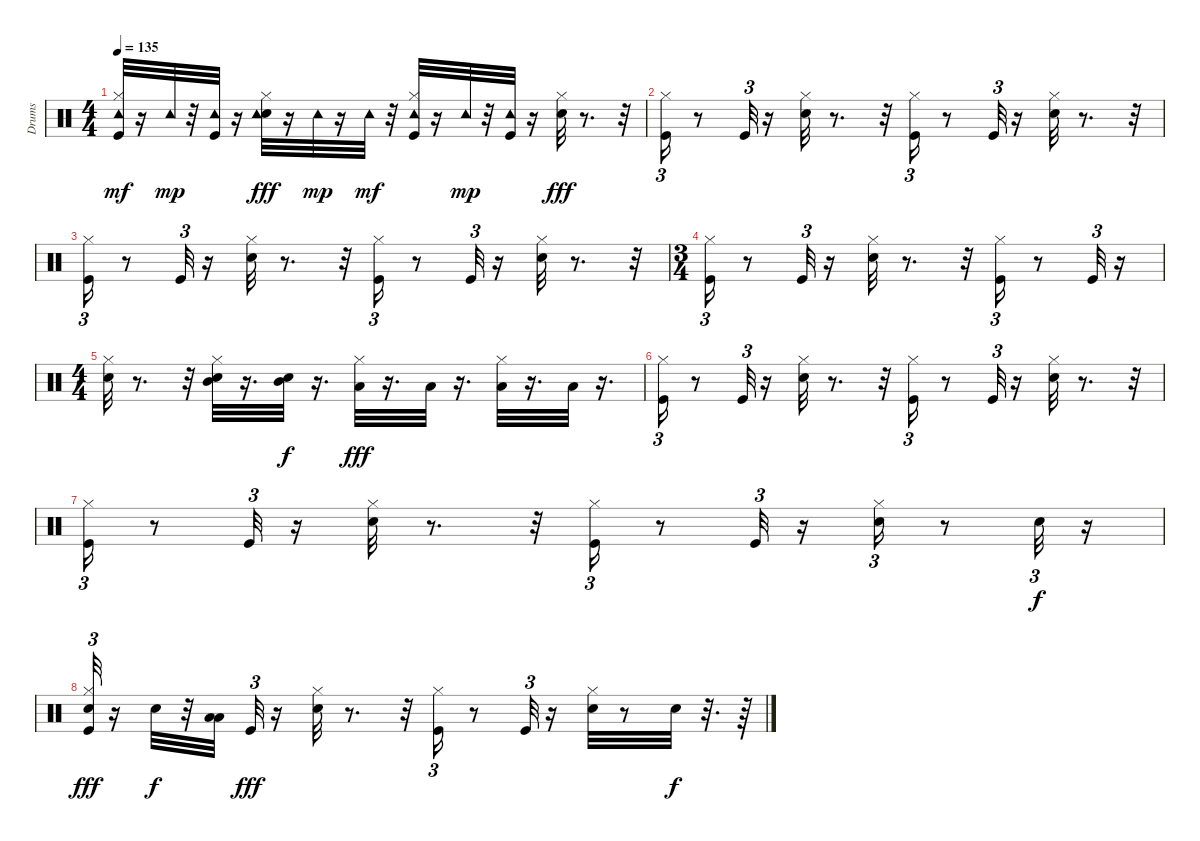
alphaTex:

\track ("Drums" "Drums") {instrument percussion}
\staff {score}
\articulation defaults
\ts (4 4)
\tempo 135
\clef neutral
\ks c
("Kick (hit)" "Hi-Hat (closed)" "Tambourine (hit)").32{dy mf} r.16 "Tambourine (hit)".32{dy mp} r.32 ("Kick (hit)" "Tambourine (hit)").32 r.16 ("Electric Snare (hit)" "Hi-Hat (closed)" "Tambourine (hit)").32{dy fff} r.16 "Tambourine (hit)".32{dy mp} r.16 "Tambourine (hit)".32{dy mf} r.32 ("Kick (hit)" "Hi-Hat (closed)" "Tambourine (hit)").32 r.16 "Tambourine (hit)".32{dy mp} r.32 ("Kick (hit)" "Tambourine (hit)").32 r.16 ("Electric Snare (hit)" "Hi-Hat (closed)").32{dy fff} r.8{d} r.32 |
("Kick (hit)" "Hi-Hat (closed)").16{tu (3 2)} r.8 "Kick (hit)".32{tu (3 2)} r.16 ("Electric Snare (hit)" "Hi-Hat (closed)").32 r.8{d} r.32 ("Kick (hit)" "Hi-Hat (closed)").16{tu (3 2)} r.8 "Kick (hit)".32{tu (3 2)} r.16 ("Electric Snare (hit)" "Hi-Hat (closed)").32 r.8{d} r.32 |
("Kick (hit)" "Hi-Hat (closed)").16{tu (3 2)} r.8 "Kick (hit)".32{tu (3 2)} r.16 ("Electric Snare (hit)" "Hi-Hat (closed)").32 r.8{d} r.32 ("Kick (hit)" "Hi-Hat (closed)").16{tu (3 2)} r.8 "Kick (hit)".32{tu (3 2)} r.16 ("Electric Snare (hit)" "Hi-Hat (closed)").32 r.8{d} r.32 |
\ts (3 4)
("Kick (hit)" "Hi-Hat (closed)").16{tu (3 2)} r.8 "Kick (hit)".32{tu (3 2)} r.16 ("Electric Snare (hit)" "Hi-Hat (closed)").32 r.8{d} r.32 ("Kick (hit)" "Hi-Hat (closed)").16{tu (3 2)} r.8 "Kick (hit)".32{tu (3 2)} r.16 |
\ts (4 4)
("Electric Snare (hit)" "Hi-Hat (closed)").32 r.8{d} r.32 ("Electric Snare (hit)" "Mid Tom (hit)" "Hi-Hat (closed)").32 r.16{d} ("Electric Snare (hit)" "Mid Tom (hit)").32{dy f} r.16{d} ("Low Tom (hit)" "Hi-Hat (closed)").32{dy fff} r.16{d} "Low Tom (hit)".32 r.16{d} ("Low Floor Tom (hit)" "Hi-Hat (closed)").32 r.16{d} "Low Floor Tom (hit)".32 r.16{d} |
("Kick (hit)" "Hi-Hat (closed)").16{tu (3 2)} r.8 "Kick (hit)".32{tu (3 2)} r.16 ("Electric Snare (hit)" "Hi-Hat (closed)").32 r.8{d} r.32 ("Kick (hit)" "Hi-Hat (closed)").16{tu (3 2)} r.8 "Kick (hit)".32{tu (3 2)} r.16 ("Electric Snare (hit)" "Hi-Hat (closed)").32 r.8{d} r.32 |
("Kick (hit)" "Hi-Hat (closed)").16{tu (3 2)} r.8 "Kick (hit)".32{tu (3 2)} r.16 ("Electric Snare (hit)" "Hi-Hat (closed)").32 r.8{d} r.32 ("Kick (hit)" "Hi-Hat (closed)").16{tu (3 2)} r.8 "Kick (hit)".32{tu (3 2)} r.16 ("Electric Snare (hit)" "Hi-Hat (closed)").16{tu (3 2)} r.8 "Electric Snare (hit)".32{tu (3 2) dy f} r.16 |
("Electric Snare (hit)" "Kick (hit)" "Hi-Hat (closed)").32{tu (3 2) dy fff} r.16 "Electric Snare (hit)".32{dy f} r.32 ("Low Floor Tom (hit)" "Low Tom (hit)").32 "Kick (hit)".32{tu (3 2) dy fff} r.16 ("Electric Snare (hit)" "Hi-Hat (closed)").32 r.8{d} r.32 ("Kick (hit)" "Hi-Hat (closed)").16{tu (3 2)} r.8 "Kick (hit)".32{tu (3 2)} r.16 ("Electric Snare (hit)" "Hi-Hat (closed)").32 r.8 "Electric Snare (hit)".32{dy f} r.32{d} r.64
